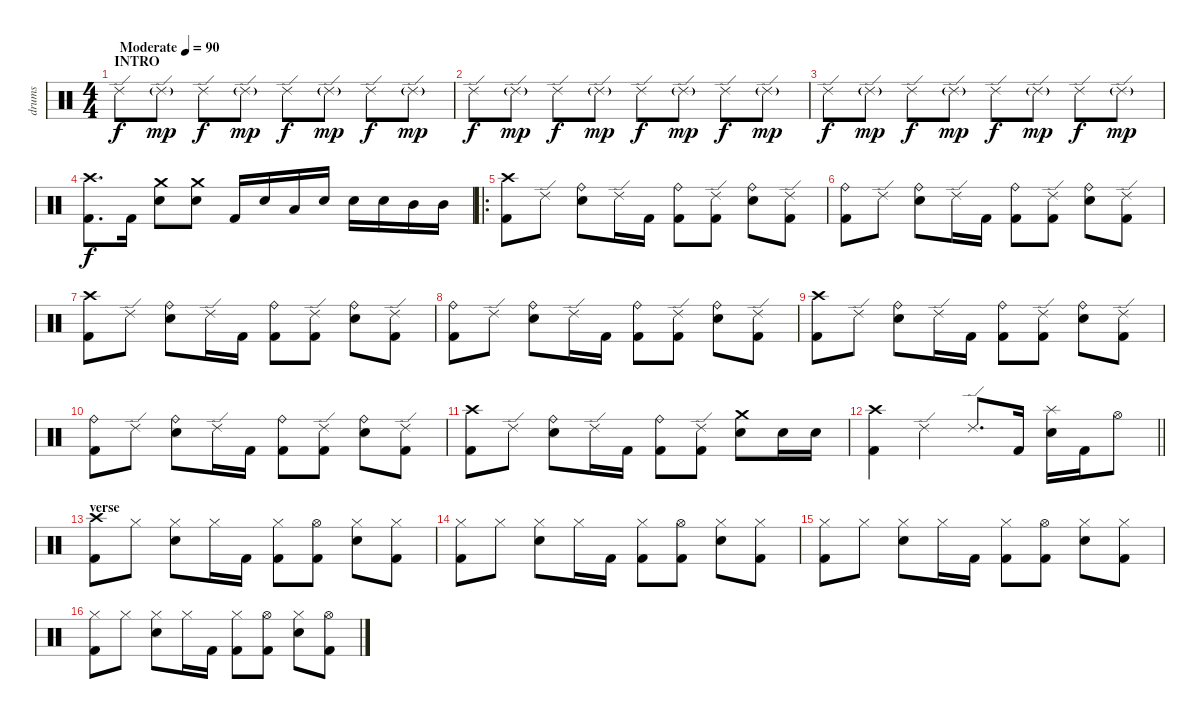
\track ("drums" "drums") {instrument percussion}
\staff
\articulation defaults
\ts (4 4)
\section ("" "INTRO")
\tempo (90 "Moderate")
\clef neutral
\ks c "Ride (edge) 2".8{dy f} "Ride (edge) 2"{g}.8{dy mp} "Ride (edge) 2".8{dy f} "Ride (edge) 2"{g}.8{dy mp} "Ride (edge) 2".8{dy f} "Ride (edge) 2"{g}.8{dy mp} "Ride (edge) 2".8{dy f} "Ride (edge) 2"{g}.8{dy mp}
|
"Ride (edge) 2".8{dy f} "Ride (edge) 2"{g}.8{dy mp} "Ride (edge) 2".8{dy f} "Ride (edge) 2"{g}.8{dy mp} "Ride (edge) 2".8{dy f} "Ride (edge) 2"{g}.8{dy mp} "Ride (edge) 2".8{dy f} "Ride (edge) 2"{g}.8{dy mp} |
"Ride (edge) 2".8{dy f} "Ride (edge) 2"{g}.8{dy mp} "Ride (edge) 2".8{dy f} "Ride (edge) 2"{g}.8{dy mp} "Ride (edge) 2".8{dy f} "Ride (edge) 2"{g}.8{dy mp} "Ride (edge) 2".8{dy f} "Ride (edge) 2"{g}.8{dy mp} |
("Crash high (hit)" "Kick (hit) 2").8{d dy f} "Kick (hit) 2".16 ("Crash medium (hit)" "Electric Snare (hit)").8 ("Crash medium (hit)" "Electric Snare (hit)").8 "Kick (hit) 2".16 "Electric Snare (hit)".16 "Low Tom (hit)".16 "Electric Snare (hit)".16 "Electric Snare (hit)".16 "Electric Snare (hit)".16 "Mid Tom (hit)".16 "Mid Tom (hit)".16 |
\ro
("Crash high (hit)" "Kick (hit) 2").8 "Ride (edge) 2".8 ("Ride (bell)" "Electric Snare (hit)").8 "Ride (edge) 2".16 "Kick (hit) 2".16 ("Ride (bell)" "Kick (hit) 2").8 ("Ride (edge) 2" "Kick (hit) 2").8 ("Ride (bell)" "Electric Snare (hit)").8 ("Ride (edge) 2" "Kick (hit) 2").8 |
("Ride (bell)" "Kick (hit) 2").8 "Ride (edge) 2".8 ("Ride (bell)" "Electric Snare (hit)").8 "Ride (edge) 2".16 "Kick (hit) 2".16 ("Ride (bell)" "Kick (hit) 2").8 ("Ride (edge) 2" "Kick (hit) 2").8 ("Ride (bell)" "Electric Snare (hit)").8 ("Ride (edge) 2" "Kick (hit) 2").8 |
("Crash high (hit)" "Kick (hit) 2").8 "Ride (edge) 2".8 ("Ride (bell)" "Electric Snare (hit)").8 "Ride (edge) 2".16 "Kick (hit) 2".16 ("Ride (bell)" "Kick (hit) 2").8 ("Ride (edge) 2" "Kick (hit) 2").8 ("Ride (bell)" "Electric Snare (hit)").8 ("Ride (edge) 2" "Kick (hit) 2").8 |
("Ride (bell)" "Kick (hit) 2").8 "Ride (edge) 2".8 ("Ride (bell)" "Electric Snare (hit)").8 "Ride (edge) 2".16 "Kick (hit) 2".16 ("Ride (bell)" "Kick (hit) 2").8 ("Ride (edge) 2" "Kick (hit) 2").8 ("Ride (bell)" "Electric Snare (hit)").8 ("Ride (edge) 2" "Kick (hit) 2").8 |
("Crash high (hit)" "Kick (hit) 2").8 "Ride (edge) 2".8 ("Ride (bell)" "Electric Snare (hit)").8 "Ride (edge) 2".16 "Kick (hit) 2".16 ("Ride (bell)" "Kick (hit) 2").8 ("Ride (edge) 2" "Kick (hit) 2").8 ("Ride (bell)" "Electric Snare (hit)").8 ("Ride (edge) 2" "Kick (hit) 2").8 |
("Ride (bell)" "Kick (hit) 2").8 "Ride (edge) 2".8 ("Ride (bell)" "Electric Snare (hit)").8 "Ride (edge) 2".16 "Kick (hit) 2".16 ("Ride (bell)" "Kick (hit) 2").8 ("Ride (edge) 2" "Kick (hit) 2").8 ("Ride (bell)" "Electric Snare (hit)").8 ("Ride (edge) 2" "Kick (hit) 2").8 |
("Crash high (hit)" "Kick (hit) 2").8 "Ride (edge) 2".8 ("Ride (bell)" "Electric Snare (hit)").8 "Ride (edge) 2".16 "Kick (hit) 2".16 ("Ride (bell)" "Kick (hit) 2").8 ("Ride (edge) 2" "Kick (hit) 2").8 ("Crash medium (hit)" "Electric Snare (hit)").8 "Electric Snare (hit)".16 "Electric Snare (hit)".16 |
\barLineRight lightlight
("Crash high (hit)" "Kick (hit) 2").4 "Ride (edge) 2".4 "Ride (edge) 2".8{d} "Kick (hit) 2".16 ("Splash (hit)" "Electric Snare (hit)").16 "Kick (hit) 2".16 "Hi-Hat (open)".8 |
\section ("" "verse")
("Crash high (hit)" "Kick (hit) 2").8 "Hi-Hat (closed)".8 ("Hi-Hat (closed)" "Electric Snare (hit)").8 "Hi-Hat (closed)".16 "Kick (hit) 2".16 ("Hi-Hat (closed)" "Kick (hit) 2").8 ("Hi-Hat (open)" "Kick (hit) 2").8 ("Hi-Hat (closed)" "Electric Snare (hit)").8 ("Hi-Hat (closed)" "Kick (hit) 2").8 |
("Hi-Hat (closed)" "Kick (hit) 2").8 "Hi-Hat (closed)".8 ("Hi-Hat (closed)" "Electric Snare (hit)").8 "Hi-Hat (closed)".16 "Kick (hit) 2".16 ("Hi-Hat (closed)" "Kick (hit) 2").8 ("Hi-Hat (open)" "Kick (hit) 2").8 ("Hi-Hat (closed)" "Electric Snare (hit)").8 ("Hi-Hat (closed)" "Kick (hit) 2").8 |
("Hi-Hat (closed)" "Kick (hit) 2").8 "Hi-Hat (closed)".8 ("Hi-Hat (closed)" "Electric Snare (hit)").8 "Hi-Hat (closed)".16 "Kick (hit) 2".16 ("Hi-Hat (closed)" "Kick (hit) 2").8 ("Hi-Hat (open)" "Kick (hit) 2").8 ("Hi-Hat (closed)" "Electric Snare (hit)").8 ("Hi-Hat (closed)" "Kick (hit) 2").8 |
("Hi-Hat (closed)" "Kick (hit) 2").8 "Hi-Hat (closed)".8 ("Hi-Hat (closed)" "Electric Snare (hit)").8 "Hi-Hat (closed)".16 "Kick (hit) 2".16 ("Hi-Hat (closed)" "Kick (hit) 2").8 ("Hi-Hat (open)" "Kick (hit) 2").8 ("Hi-Hat (closed)" "Electric Snare (hit)").8 ("Hi-Hat (open)" "Kick (hit) 2").8
